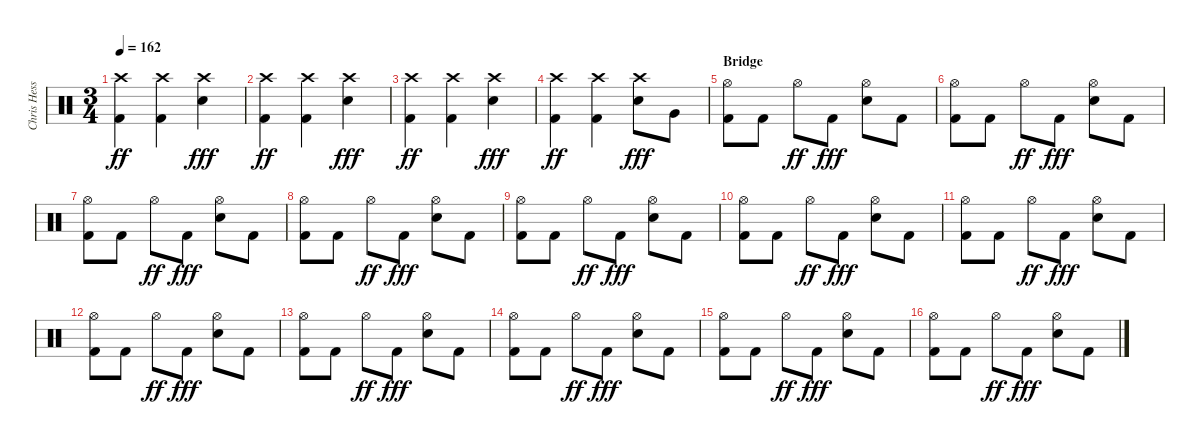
\track ("Chris Hesse" "Chris Hess") {instrument percussion}
\staff {score}
\articulation defaults
\ts (3 4)
\tempo 162
\clef neutral
\ks c
("Crash high (hit)" "Kick (hit) 2").4{dy ff} ("Crash high (hit)" "Kick (hit) 2").4 ("Crash high (hit)" "Snare (hit) 2").4{dy fff} |
("Crash high (hit)" "Kick (hit) 2").4{dy ff} ("Crash high (hit)" "Kick (hit) 2").4 ("Crash high (hit)" "Snare (hit) 2").4{dy fff} |
("Crash high (hit)" "Kick (hit) 2").4{dy ff} ("Crash high (hit)" "Kick (hit) 2").4 ("Crash high (hit)" "Snare (hit) 2").4{dy fff} |
("Crash high (hit)" "Kick (hit) 2").4{dy ff} ("Crash high (hit)" "Kick (hit) 2").4 ("Crash high (hit)" "Snare (hit) 2").8{dy fff} "Very Low Tom (hit)".8 |
\section ("" "Bridge")
("Hi-Hat (open)" "Kick (hit) 2").8 "Kick (hit) 2".8 "Hi-Hat (open)".8{dy ff} "Kick (hit) 2".8{dy fff} ("Hi-Hat (open)" "Snare (hit) 2").8 "Kick (hit) 2".8 |
("Hi-Hat (open)" "Kick (hit) 2").8 "Kick (hit) 2".8 "Hi-Hat (open)".8{dy ff} "Kick (hit) 2".8{dy fff} ("Hi-Hat (open)" "Snare (hit) 2").8 "Kick (hit) 2".8 |
("Hi-Hat (open)" "Kick (hit) 2").8 "Kick (hit) 2".8 "Hi-Hat (open)".8{dy ff} "Kick (hit) 2".8{dy fff} ("Hi-Hat (open)" "Snare (hit) 2").8 "Kick (hit) 2".8 |
("Hi-Hat (open)" "Kick (hit) 2").8 "Kick (hit) 2".8 "Hi-Hat (open)".8{dy ff} "Kick (hit) 2".8{dy fff} ("Hi-Hat (open)" "Snare (hit) 2").8 "Kick (hit) 2".8 |
("Hi-Hat (open)" "Kick (hit) 2").8 "Kick (hit) 2".8 "Hi-Hat (open)".8{dy ff} "Kick (hit) 2".8{dy fff} ("Hi-Hat (open)" "Snare (hit) 2").8 "Kick (hit) 2".8 |
("Hi-Hat (open)" "Kick (hit) 2").8 "Kick (hit) 2".8 "Hi-Hat (open)".8{dy ff} "Kick (hit) 2".8{dy fff} ("Hi-Hat (open)" "Snare (hit) 2").8 "Kick (hit) 2".8 |
("Hi-Hat (open)" "Kick (hit) 2").8 "Kick (hit) 2".8 "Hi-Hat (open)".8{dy ff} "Kick (hit) 2".8{dy fff} ("Hi-Hat (open)" "Snare (hit) 2").8 "Kick (hit) 2".8 |
("Hi-Hat (open)" "Kick (hit) 2").8 "Kick (hit) 2".8 "Hi-Hat (open)".8{dy ff} "Kick (hit) 2".8{dy fff} ("Hi-Hat (open)" "Snare (hit) 2").8 "Kick (hit) 2".8 |
("Hi-Hat (open)" "Kick (hit) 2").8 "Kick (hit) 2".8 "Hi-Hat (open)".8{dy ff} "Kick (hit) 2".8{dy fff} ("Hi-Hat (open)" "Snare (hit) 2").8 "Kick (hit) 2".8 |
("Hi-Hat (open)" "Kick (hit) 2").8 "Kick (hit) 2".8 "Hi-Hat (open)".8{dy ff} "Kick (hit) 2".8{dy fff} ("Hi-Hat (open)" "Snare (hit) 2").8 "Kick (hit) 2".8 |
("Hi-Hat (open)" "Kick (hit) 2").8 "Kick (hit) 2".8 "Hi-Hat (open)".8{dy ff} "Kick (hit) 2".8{dy fff} ("Hi-Hat (open)" "Snare (hit) 2").8 "Kick (hit) 2".8 |
("Hi-Hat (open)" "Kick (hit) 2").8 "Kick (hit) 2".8 "Hi-Hat (open)".8{dy ff} "Kick (hit) 2".8{dy fff} ("Hi-Hat (open)" "Snare (hit) 2").8 "Kick (hit) 2".8
